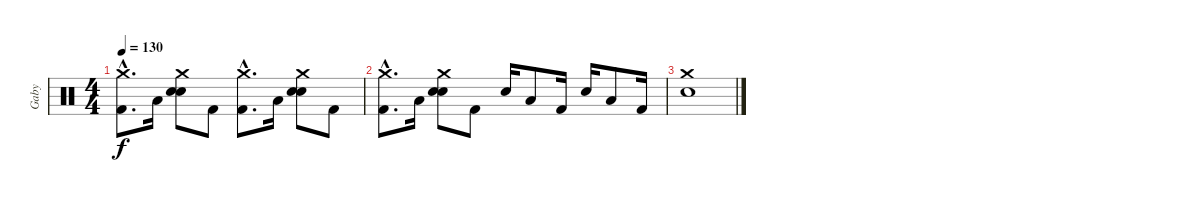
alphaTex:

\track ("Gaby" "Gaby") {instrument percussion}
\staff {score}
\articulation defaults
\ts (4 4)
\tempo 130
\clef neutral
\ks c
("Crash medium (hit)"{hac} "Kick (hit) 2"{hac}).8{d dy f} "Low Floor Tom (hit)".16 ("Crash medium (hit)" "Electric Snare (hit)" "Electric Snare (hit)").8 "Kick (hit) 2".8 ("Crash medium (hit)"{hac} "Kick (hit) 2"{hac}).8{d} "Low Floor Tom (hit)".16 ("Crash medium (hit)" "Electric Snare (hit)" "Electric Snare (hit)").8 "Kick (hit) 2".8 |
("Crash medium (hit)"{hac} "Kick (hit) 2"{hac}).8{d} "Low Floor Tom (hit)".16 ("Crash medium (hit)" "Electric Snare (hit)" "Electric Snare (hit)").8 "Kick (hit) 2".8 "Electric Snare (hit)".16 "Low Floor Tom (hit)".8 "Kick (hit) 2".16 "Electric Snare (hit)".16 "Low Floor Tom (hit)".8 "Kick (hit) 2".16 |
("Crash medium (hit)" "Electric Snare (hit)").1
